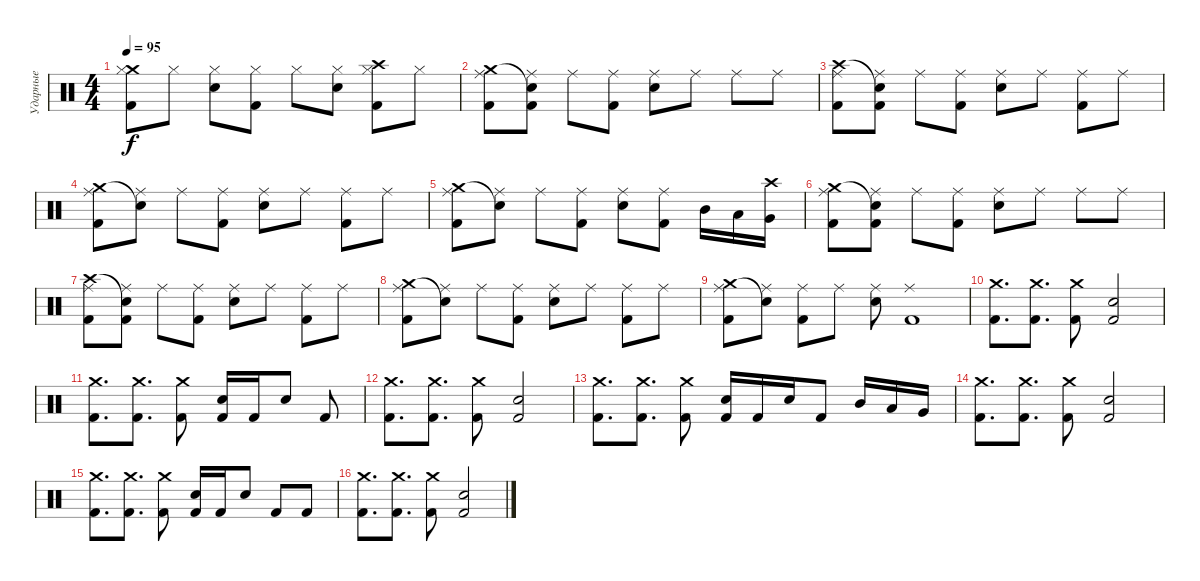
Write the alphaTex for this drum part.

\track ("Ударные" "Ударные") {instrument percussion}
\staff {score}
\articulation defaults
\ts (4 4)
\tempo 95
\clef neutral
\ks c
("Crash medium (hit)" "Hi-Hat (closed)" "Kick (hit) 2").8{dy f} "Hi-Hat (closed)".8 ("Hi-Hat (closed)" "Electric Snare (hit)").8 ("Hi-Hat (closed)" "Kick (hit) 2").8 "Hi-Hat (closed)".8 ("Hi-Hat (closed)" "Electric Snare (hit)").8 ("Crash high (hit)" "Hi-Hat (closed)" "Kick (hit) 2").8 "Hi-Hat (closed)".8 |
("Crash medium (hit)" "Ride (middle)" "Kick (hit) 2").8 ("Snare (hit)"{t} "Ride (middle)" "Kick (hit) 2").8 "Ride (middle)".8 ("Ride (middle)" "Kick (hit) 2").8 ("Ride (middle)" "Electric Snare (hit)").8 "Ride (middle)".8 "Ride (middle)".8 "Ride (middle)".8 |
("Crash high (hit)" "Ride (middle)" "Kick (hit) 2").8 ("Snare (hit)"{t} "Ride (middle)" "Kick (hit) 2").8 "Ride (middle)".8 ("Ride (middle)" "Kick (hit) 2").8 ("Ride (middle)" "Electric Snare (hit)").8 "Ride (middle)".8 ("Ride (middle)" "Kick (hit) 2").8 "Ride (middle)".8 |
("Crash medium (hit)" "Ride (middle)" "Kick (hit) 2").8 ("Snare (hit)"{t} "Ride (middle)").8 "Ride (middle)".8 ("Ride (middle)" "Kick (hit) 2").8 ("Ride (middle)" "Electric Snare (hit)").8 "Ride (middle)".8 ("Ride (middle)" "Kick (hit) 2").8 "Ride (middle)".8 |
("Crash medium (hit)" "Ride (middle)" "Kick (hit) 2").8 ("Snare (hit)"{t} "Ride (middle)").8 "Ride (middle)".8 ("Ride (middle)" "Kick (hit) 2").8 ("Ride (middle)" "Electric Snare (hit)").8 ("Ride (middle)" "Kick (hit) 2").8 "Mid Tom (hit)".16 "Low Tom (hit)".16 ("Crash high (hit)" "Very Low Tom (hit)").16 |
("Crash medium (hit)" "Ride (middle)" "Kick (hit) 2").8 ("Snare (hit)"{t} "Ride (middle)" "Kick (hit) 2").8 "Ride (middle)".8 ("Ride (middle)" "Kick (hit) 2").8 ("Ride (middle)" "Electric Snare (hit)").8 "Ride (middle)".8 "Ride (middle)".8 "Ride (middle)".8 |
("Crash high (hit)" "Ride (middle)" "Kick (hit) 2").8 ("Snare (hit)"{t} "Ride (middle)" "Kick (hit) 2").8 "Ride (middle)".8 ("Ride (middle)" "Kick (hit) 2").8 ("Ride (middle)" "Electric Snare (hit)").8 "Ride (middle)".8 ("Ride (middle)" "Kick (hit) 2").8 "Ride (middle)".8 |
("Crash medium (hit)" "Ride (middle)" "Kick (hit) 2").8 ("Snare (hit)"{t} "Ride (middle)").8 "Ride (middle)".8 ("Ride (middle)" "Kick (hit) 2").8 ("Ride (middle)" "Electric Snare (hit)").8 "Ride (middle)".8 ("Ride (middle)" "Kick (hit) 2").8 "Ride (middle)".8 |
("Crash medium (hit)" "Ride (middle)" "Kick (hit) 2").8 ("Snare (hit)"{t} "Ride (middle)").8 ("Ride (middle)" "Kick (hit) 2").8 "Ride (middle)".8 ("Ride (middle)" "Electric Snare (hit)").8 ("Ride (middle)" "Kick (hit) 2").1 |
("Crash medium (hit)" "Kick (hit) 2").8{d} ("Crash medium (hit)" "Kick (hit) 2").8{d} ("Crash medium (hit)" "Kick (hit) 2").8 ("Electric Snare (hit)" "Kick (hit) 2").2 |
("Crash medium (hit)" "Kick (hit) 2").8{d} ("Crash medium (hit)" "Kick (hit) 2").8{d} ("Crash medium (hit)" "Kick (hit) 2").8 ("Electric Snare (hit)" "Kick (hit) 2").16 "Kick (hit) 2".16 "Snare (hit)".8 "Kick (hit) 2".8 |
("Crash medium (hit)" "Kick (hit) 2").8{d} ("Crash medium (hit)" "Kick (hit) 2").8{d} ("Crash medium (hit)" "Kick (hit) 2").8 ("Electric Snare (hit)" "Kick (hit) 2").2 |
("Crash medium (hit)" "Kick (hit) 2").8{d} ("Crash medium (hit)" "Kick (hit) 2").8{d} ("Crash medium (hit)" "Kick (hit) 2").8 ("Electric Snare (hit)" "Kick (hit) 2").16 "Kick (hit) 2".16 "Snare (hit)".16 "Kick (hit) 2".8 "Mid Tom (hit)".16 "Low Tom (hit)".16 "Very Low Tom (hit)".16 |
("Crash medium (hit)" "Kick (hit) 2").8{d} ("Crash medium (hit)" "Kick (hit) 2").8{d} ("Crash medium (hit)" "Kick (hit) 2").8 ("Electric Snare (hit)" "Kick (hit) 2").2 |
("Crash medium (hit)" "Kick (hit) 2").8{d} ("Crash medium (hit)" "Kick (hit) 2").8{d} ("Crash medium (hit)" "Kick (hit) 2").8 ("Electric Snare (hit)" "Kick (hit) 2").16 "Kick (hit) 2".16 "Snare (hit)".8 "Kick (hit) 2".8 "Kick (hit) 2".8 |
("Crash medium (hit)" "Kick (hit) 2").8{d} ("Crash medium (hit)" "Kick (hit) 2").8{d} ("Crash medium (hit)" "Kick (hit) 2").8 ("Electric Snare (hit)" "Kick (hit) 2").2
